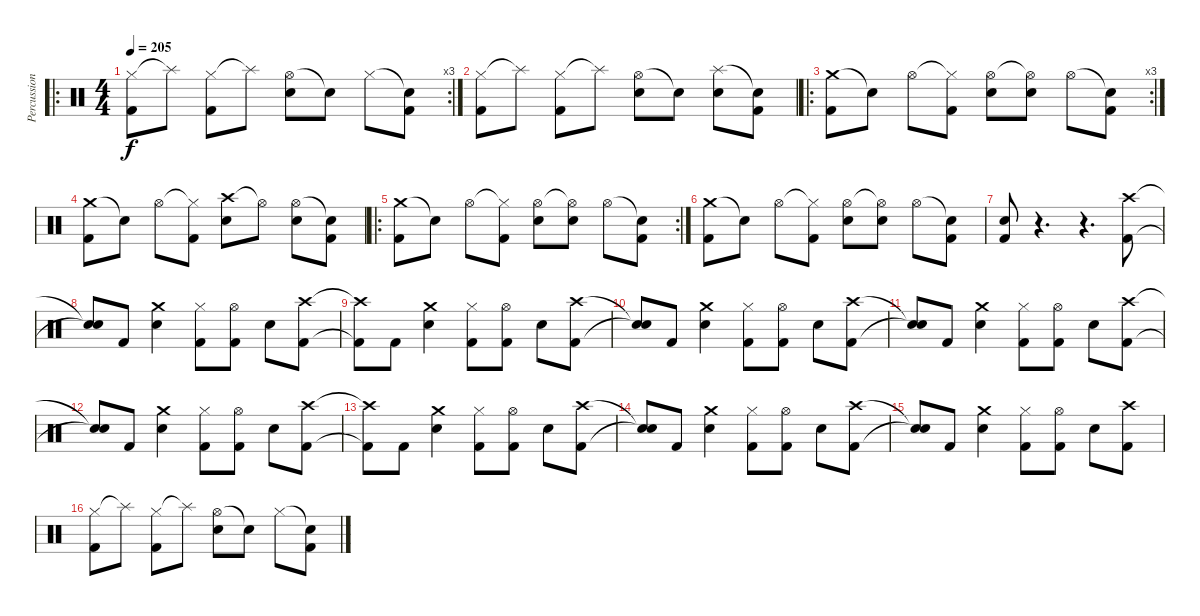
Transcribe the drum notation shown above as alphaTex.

\track ("Percussion" "Percussion") {instrument percussion}
\staff {score}
\articulation defaults
\ro
\rc 3
\ts (4 4)
\tempo 205
\clef neutral
\ks c
("Hi-Hat (closed)" "Kick (hit) 2").8{dy f} "Splash (hit)"{t}.8 ("Hi-Hat (closed)" "Kick (hit) 2").8 "Splash (hit)"{t}.8 ("Hi-Hat (open)" "Electric Snare (hit)").8 "Snare (hit)"{t}.8 "Hi-Hat (closed)".8 ("Snare (hit)"{t} "Kick (hit) 2").8 |
("Hi-Hat (closed)" "Kick (hit) 2").8 "Splash (hit)"{t}.8 ("Hi-Hat (closed)" "Kick (hit) 2").8 "Splash (hit)"{t}.8 ("Hi-Hat (open)" "Electric Snare (hit)").8 "Snare (hit)"{t}.8 ("Splash (hit)" "Electric Snare (hit)").8 ("Snare (hit)"{t} "Kick (hit) 2").8 |
\ro
\rc 3
("Crash medium (hit)" "Kick (hit) 2").8 "Snare (hit)"{t}.8 "Hi-Hat (open)".8 ("Hi-Hat (closed)"{t} "Kick (hit) 2").8 ("Hi-Hat (open)" "Electric Snare (hit)").8 ("Hi-Hat (open)"{t} "Electric Snare (hit)").8 "Hi-Hat (open)".8 ("Snare (hit)"{t} "Kick (hit) 2").8 |
("Crash medium (hit)" "Kick (hit) 2").8 "Snare (hit)"{t}.8 "Hi-Hat (open)".8 ("Hi-Hat (closed)"{t} "Kick (hit) 2").8 ("Crash high (hit)" "Electric Snare (hit)").8 "Hi-Hat (open)"{t}.8 ("Hi-Hat (open)" "Electric Snare (hit)").8 ("Snare (hit)"{t} "Kick (hit) 2").8 |
\ro
\rc 2
("Crash medium (hit)" "Kick (hit) 2").8 "Snare (hit)"{t}.8 "Hi-Hat (open)".8 ("Hi-Hat (closed)"{t} "Kick (hit) 2").8 ("Hi-Hat (open)" "Electric Snare (hit)").8 ("Hi-Hat (open)"{t} "Electric Snare (hit)").8 "Hi-Hat (open)".8 ("Snare (hit)"{t} "Kick (hit) 2").8 |
("Crash medium (hit)" "Kick (hit) 2").8 "Snare (hit)"{t}.8 "Hi-Hat (open)".8 ("Hi-Hat (closed)"{t} "Kick (hit) 2").8 ("Hi-Hat (open)" "Electric Snare (hit)").8 ("Hi-Hat (open)"{t} "Electric Snare (hit)").8 "Hi-Hat (open)".8 ("Snare (hit)"{t} "Kick (hit) 2").8 |
("Electric Snare (hit)" "Kick (hit) 2").8 r.4{d} r.4{d} ("Crash high (hit)" "Kick (hit) 2").8 |
("Snare (hit)"{t} "Snare (hit)"{t}).8 "Kick (hit) 2".8 ("Crash medium (hit)" "Electric Snare (hit)").4 ("Hi-Hat (closed)" "Kick (hit) 2").8 ("Hi-Hat (open)" "Kick (hit) 2").8 "Electric Snare (hit)".8 ("Crash high (hit)" "Kick (hit) 2").8 |
("Crash high (hit)"{t} "Kick (hit) 2"{t}).8 "Kick (hit) 2".8 ("Crash medium (hit)" "Electric Snare (hit)").4 ("Hi-Hat (closed)" "Kick (hit) 2").8 ("Hi-Hat (open)" "Kick (hit) 2").8 "Electric Snare (hit)".8 ("Crash high (hit)" "Kick (hit) 2").8 |
("Snare (hit)"{t} "Snare (hit)"{t}).8 "Kick (hit) 2".8 ("Crash medium (hit)" "Electric Snare (hit)").4 ("Hi-Hat (closed)" "Kick (hit) 2").8 ("Hi-Hat (open)" "Kick (hit) 2").8 "Electric Snare (hit)".8 ("Crash high (hit)" "Kick (hit) 2").8 |
("Snare (hit)"{t} "Snare (hit)"{t}).8 "Kick (hit) 2".8 ("Crash medium (hit)" "Electric Snare (hit)").4 ("Hi-Hat (closed)" "Kick (hit) 2").8 ("Hi-Hat (open)" "Kick (hit) 2").8 "Electric Snare (hit)".8 ("Crash high (hit)" "Kick (hit) 2").8 |
("Snare (hit)"{t} "Snare (hit)"{t}).8 "Kick (hit) 2".8 ("Crash medium (hit)" "Electric Snare (hit)").4 ("Hi-Hat (closed)" "Kick (hit) 2").8 ("Hi-Hat (open)" "Kick (hit) 2").8 "Electric Snare (hit)".8 ("Crash high (hit)" "Kick (hit) 2").8 |
("Crash high (hit)"{t} "Kick (hit) 2"{t}).8 "Kick (hit) 2".8 ("Crash medium (hit)" "Electric Snare (hit)").4 ("Hi-Hat (closed)" "Kick (hit) 2").8 ("Hi-Hat (open)" "Kick (hit) 2").8 "Electric Snare (hit)".8 ("Crash high (hit)" "Kick (hit) 2").8 |
("Snare (hit)"{t} "Snare (hit)"{t}).8 "Kick (hit) 2".8 ("Crash medium (hit)" "Electric Snare (hit)").4 ("Hi-Hat (closed)" "Kick (hit) 2").8 ("Hi-Hat (open)" "Kick (hit) 2").8 "Electric Snare (hit)".8 ("Crash high (hit)" "Kick (hit) 2").8 |
("Snare (hit)"{t} "Snare (hit)"{t}).8 "Kick (hit) 2".8 ("Crash medium (hit)" "Electric Snare (hit)").4 ("Hi-Hat (closed)" "Kick (hit) 2").8 ("Hi-Hat (open)" "Kick (hit) 2").8 "Electric Snare (hit)".8 ("Crash high (hit)" "Kick (hit) 2").8 |
("Hi-Hat (closed)" "Kick (hit) 2").8 "Splash (hit)"{t}.8 ("Hi-Hat (closed)" "Kick (hit) 2").8 "Splash (hit)"{t}.8 ("Hi-Hat (open)" "Electric Snare (hit)").8 "Snare (hit)"{t}.8 "Hi-Hat (closed)".8 ("Snare (hit)"{t} "Kick (hit) 2").8
